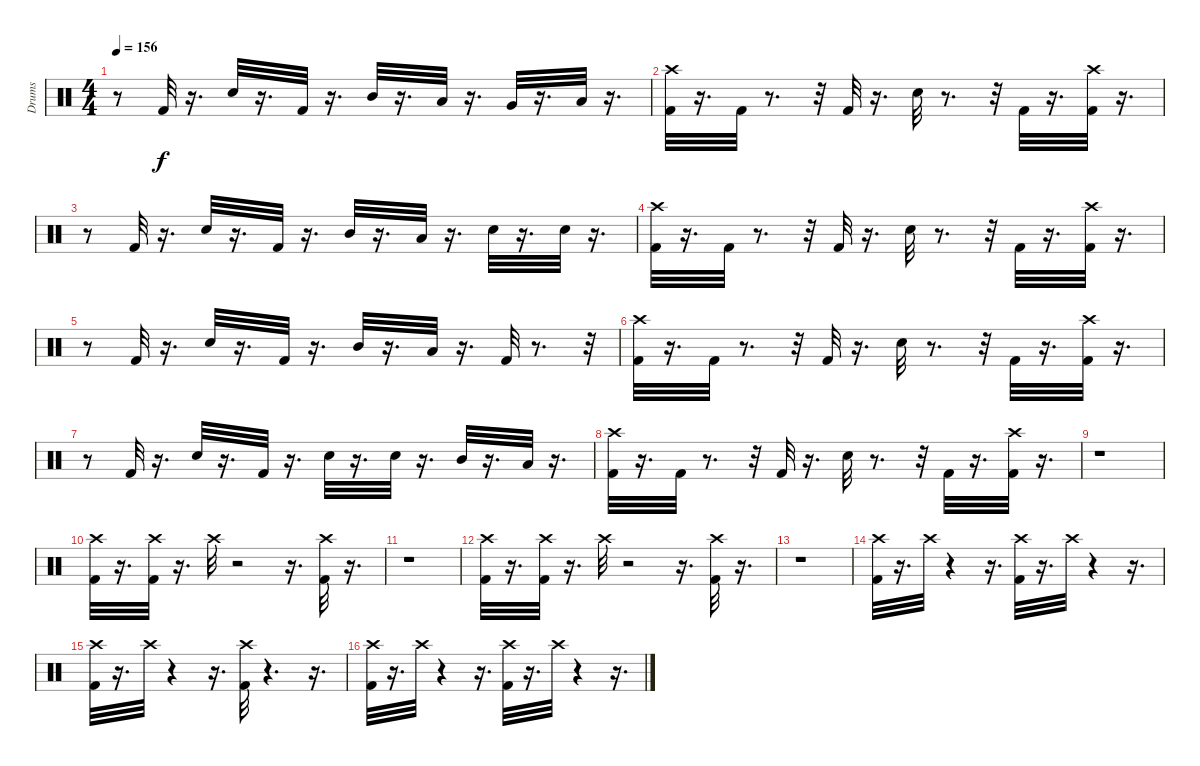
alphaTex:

\track ("Drums" "Drums") {instrument percussion}
\staff {score}
\articulation defaults
\ts (4 4)
\tempo 156
\clef neutral
\ks c
r.8{dy f} "Kick (hit) 2".32 r.16{d} "Snare (hit) 2".32 r.16{d} "Kick (hit) 2".32 r.16{d} "Mid Tom (hit)".32 r.16{d} "Low Tom (hit)".32 r.16{d} "Very Low Tom (hit)".32 r.16{d} "Low Floor Tom (hit)".32 r.16{d} |
("Crash high (hit)" "Kick (hit) 2").32 r.16{d} "Kick (hit) 2".32 r.8{d} r.32 "Kick (hit) 2".32 r.16{d} "Snare (hit) 2".32 r.8{d} r.32 "Kick (hit) 2".32 r.16{d} ("Crash high (hit)" "Kick (hit) 2").32 r.16{d} |
r.8 "Kick (hit) 2".32 r.16{d} "Snare (hit) 2".32 r.16{d} "Kick (hit) 2".32 r.16{d} "Mid Tom (hit)".32 r.16{d} "Low Tom (hit)".32 r.16{d} "Snare (hit) 2".32 r.16{d} "Snare (hit) 2".32 r.16{d} |
("Crash high (hit)" "Kick (hit) 2").32 r.16{d} "Kick (hit) 2".32 r.8{d} r.32 "Kick (hit) 2".32 r.16{d} "Snare (hit) 2".32 r.8{d} r.32 "Kick (hit) 2".32 r.16{d} ("Crash high (hit)" "Kick (hit) 2").32 r.16{d} |
r.8 "Kick (hit) 2".32 r.16{d} "Snare (hit) 2".32 r.16{d} "Kick (hit) 2".32 r.16{d} "Mid Tom (hit)".32 r.16{d} "Low Tom (hit)".32 r.16{d} "Kick (hit) 2".32 r.8{d} r.32 |
("Crash high (hit)" "Kick (hit) 2").32 r.16{d} "Kick (hit) 2".32 r.8{d} r.32 "Kick (hit) 2".32 r.16{d} "Snare (hit) 2".32 r.8{d} r.32 "Kick (hit) 2".32 r.16{d} ("Crash high (hit)" "Kick (hit) 2").32 r.16{d} |
r.8 "Kick (hit) 2".32 r.16{d} "Snare (hit) 2".32 r.16{d} "Kick (hit) 2".32 r.16{d} "Snare (hit) 2".32 r.16{d} "Snare (hit) 2".32 r.16{d} "Mid Tom (hit)".32 r.16{d} "Low Tom (hit)".32 r.16{d} |
("Crash high (hit)" "Kick (hit) 2").32 r.16{d} "Kick (hit) 2".32 r.8{d} r.32 "Kick (hit) 2".32 r.16{d} "Snare (hit) 2".32 r.8{d} r.32 "Kick (hit) 2".32 r.16{d} ("Crash high (hit)" "Kick (hit) 2").32 r.16{d} |
r.1 |
("Crash high (hit)" "Kick (hit) 2").32 r.16{d} ("Kick (hit) 2" "Crash high (hit)").32 r.16{d} "Crash high (hit)".32 r.2 r.16{d} ("Crash high (hit)" "Kick (hit) 2").32 r.16{d} |
r.1 |
("Crash high (hit)" "Kick (hit) 2").32 r.16{d} ("Kick (hit) 2" "Crash high (hit)").32 r.16{d} "Crash high (hit)".32 r.2 r.16{d} ("Crash high (hit)" "Kick (hit) 2").32 r.16{d} |
r.1 |
("Crash high (hit)" "Kick (hit) 2").32 r.16{d} "Crash high (hit)".32 r.4 r.16{d} ("Crash high (hit)" "Kick (hit) 2").32 r.16{d} "Crash high (hit)".32 r.4 r.16{d} |
("Crash high (hit)" "Kick (hit) 2").32 r.16{d} "Crash high (hit)".32 r.4 r.16{d} ("Crash high (hit)" "Kick (hit) 2").32 r.4{d} r.16{d} |
("Crash high (hit)" "Kick (hit) 2").32 r.16{d} "Crash high (hit)".32 r.4 r.16{d} ("Crash high (hit)" "Kick (hit) 2").32 r.16{d} "Crash high (hit)".32 r.4 r.16{d}
